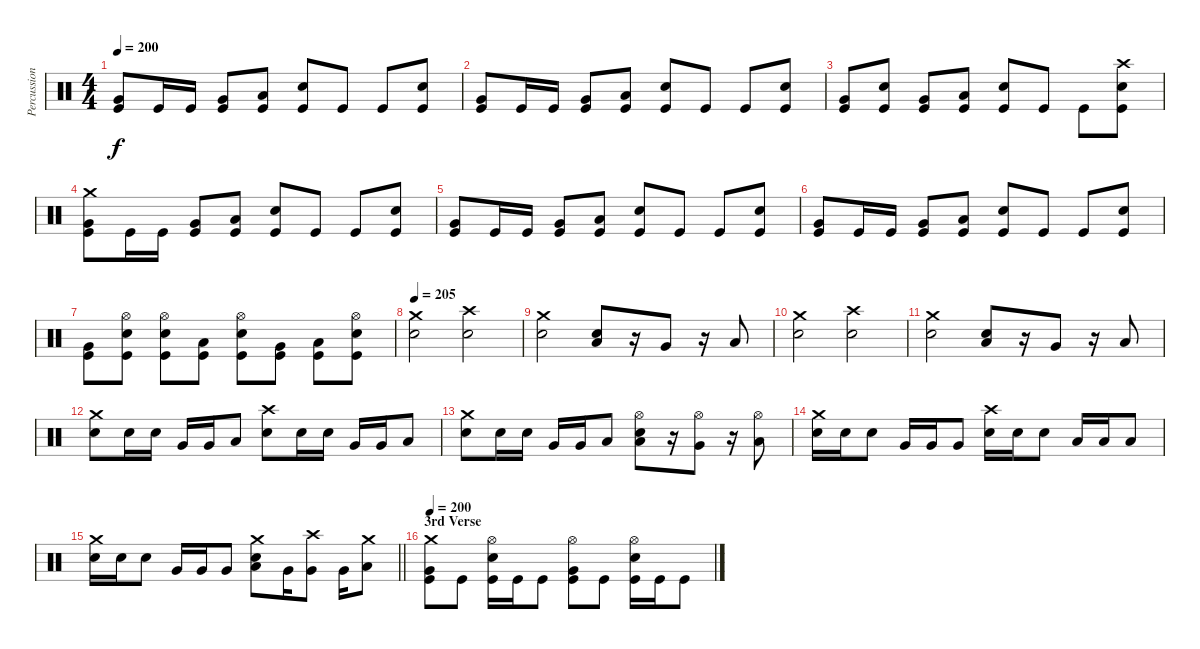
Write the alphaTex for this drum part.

\track ("Percussion" "Percussion") {instrument percussion}
\staff {score}
\articulation defaults
\ts (4 4)
\tempo 200
\clef neutral
\ks c
("Kick (hit)" "Very Low Tom (hit)").8{dy f} "Kick (hit)".16 "Kick (hit)".16 ("Kick (hit)" "Very Low Tom (hit)").8 ("Kick (hit)" "Low Floor Tom (hit)").8 ("Kick (hit)" "Snare (hit) 2").8 "Kick (hit)".8 "Kick (hit)".8 ("Kick (hit)" "Snare (hit) 2").8 |
("Kick (hit)" "Very Low Tom (hit)").8 "Kick (hit)".16 "Kick (hit)".16 ("Kick (hit)" "Very Low Tom (hit)").8 ("Kick (hit)" "Low Floor Tom (hit)").8 ("Kick (hit)" "Snare (hit) 2").8 "Kick (hit)".8 "Kick (hit)".8 ("Kick (hit)" "Snare (hit) 2").8 |
("Kick (hit)" "Very Low Tom (hit)").8 ("Kick (hit)" "Snare (hit) 2").8 ("Kick (hit)" "Very Low Tom (hit)").8 ("Kick (hit)" "Low Floor Tom (hit)").8 ("Kick (hit)" "Snare (hit) 2").8 "Kick (hit)".8 "Kick (hit)".8 ("Kick (hit)" "Snare (hit) 2" "Crash high (hit)").8 |
("Kick (hit)" "Very Low Tom (hit)" "Crash medium (hit)").8 "Kick (hit)".16 "Kick (hit)".16 ("Kick (hit)" "Very Low Tom (hit)").8 ("Kick (hit)" "Low Floor Tom (hit)").8 ("Kick (hit)" "Snare (hit) 2").8 "Kick (hit)".8 "Kick (hit)".8 ("Kick (hit)" "Snare (hit) 2").8 |
("Kick (hit)" "Very Low Tom (hit)").8 "Kick (hit)".16 "Kick (hit)".16 ("Kick (hit)" "Very Low Tom (hit)").8 ("Kick (hit)" "Low Floor Tom (hit)").8 ("Kick (hit)" "Snare (hit) 2").8 "Kick (hit)".8 "Kick (hit)".8 ("Kick (hit)" "Snare (hit) 2").8 |
("Kick (hit)" "Very Low Tom (hit)").8 "Kick (hit)".16 "Kick (hit)".16 ("Kick (hit)" "Very Low Tom (hit)").8 ("Kick (hit)" "Low Floor Tom (hit)").8 ("Kick (hit)" "Snare (hit) 2").8 "Kick (hit)".8 "Kick (hit)".8 ("Kick (hit)" "Snare (hit) 2").8 |
("Kick (hit)" "Very Low Tom (hit)").8 ("Kick (hit)" "Snare (hit) 2" "Hi-Hat (open)").8 ("Kick (hit)" "Snare (hit) 2" "Hi-Hat (open)").8 ("Kick (hit)" "Low Floor Tom (hit)").8 ("Kick (hit)" "Snare (hit) 2" "Hi-Hat (open)").8 ("Kick (hit)" "Very Low Tom (hit)").8 ("Kick (hit)" "Low Floor Tom (hit)").8 ("Kick (hit)" "Snare (hit) 2" "Hi-Hat (open)").8 |
\tempo 205
("Snare (hit) 2" "Crash medium (hit)").2 ("Snare (hit) 2" "Crash high (hit)").2 |
("Snare (hit) 2" "Crash medium (hit)").2 ("Low Tom (hit)" "Snare (hit) 2").8 r.16 "Very Low Tom (hit)".8 r.16 "Low Floor Tom (hit)".8 |
("Snare (hit) 2" "Crash medium (hit)").2 ("Snare (hit) 2" "Crash high (hit)").2 |
("Snare (hit) 2" "Crash medium (hit)").2 ("Low Tom (hit)" "Snare (hit) 2").8 r.16 "Very Low Tom (hit)".8 r.16 "Low Floor Tom (hit)".8 |
("Snare (hit) 2" "Crash medium (hit)").8 "Snare (hit) 2".16 "Snare (hit) 2".16 "Very Low Tom (hit)".16 "Very Low Tom (hit)".16 "Low Floor Tom (hit)".8 ("Snare (hit) 2" "Crash high (hit)").8 "Snare (hit) 2".16 "Snare (hit) 2".16 "Very Low Tom (hit)".16 "Very Low Tom (hit)".16 "Low Floor Tom (hit)".8 |
("Snare (hit) 2" "Crash medium (hit)").8 "Snare (hit) 2".16 "Snare (hit) 2".16 "Very Low Tom (hit)".16 "Very Low Tom (hit)".16 "Low Floor Tom (hit)".8 ("Low Tom (hit)" "Snare (hit) 2" "Hi-Hat (open)").8 r.16 ("Very Low Tom (hit)" "Hi-Hat (open)").8 r.16 ("Low Floor Tom (hit)" "Hi-Hat (open)").8 |
("Snare (hit) 2" "Crash medium (hit)").16 "Snare (hit) 2".16 "Snare (hit) 2".8 "Very Low Tom (hit)".16 "Very Low Tom (hit)".16 "Very Low Tom (hit)".8 ("Snare (hit) 2" "Crash high (hit)").16 "Snare (hit) 2".16 "Snare (hit) 2".8 "Low Floor Tom (hit)".16 "Low Floor Tom (hit)".16 "Low Floor Tom (hit)".8 |
\barLineRight lightlight
("Snare (hit) 2" "Crash medium (hit)").16 "Snare (hit) 2".16 "Snare (hit) 2".8 "Very Low Tom (hit)".16 "Very Low Tom (hit)".16 "Very Low Tom (hit)".8 ("Low Tom (hit)" "Snare (hit) 2" "Crash medium (hit)").8 "Very Low Tom (hit)".16 ("Very Low Tom (hit)" "Crash high (hit)").8 "Very Low Tom (hit)".16 ("Low Floor Tom (hit)" "Crash medium (hit)").8 |
\section ("" "3rd Verse")
\tempo 200
("Kick (hit)" "Very Low Tom (hit)" "Crash medium (hit)").8 "Kick (hit)".8 ("Kick (hit)" "Snare (hit) 2" "Hi-Hat (open)").16 "Kick (hit)".16 "Kick (hit)".8 ("Kick (hit)" "Very Low Tom (hit)" "Hi-Hat (open)").8 "Kick (hit)".8 ("Kick (hit)" "Snare (hit) 2" "Hi-Hat (open)").16 "Kick (hit)".16 "Kick (hit)".8
